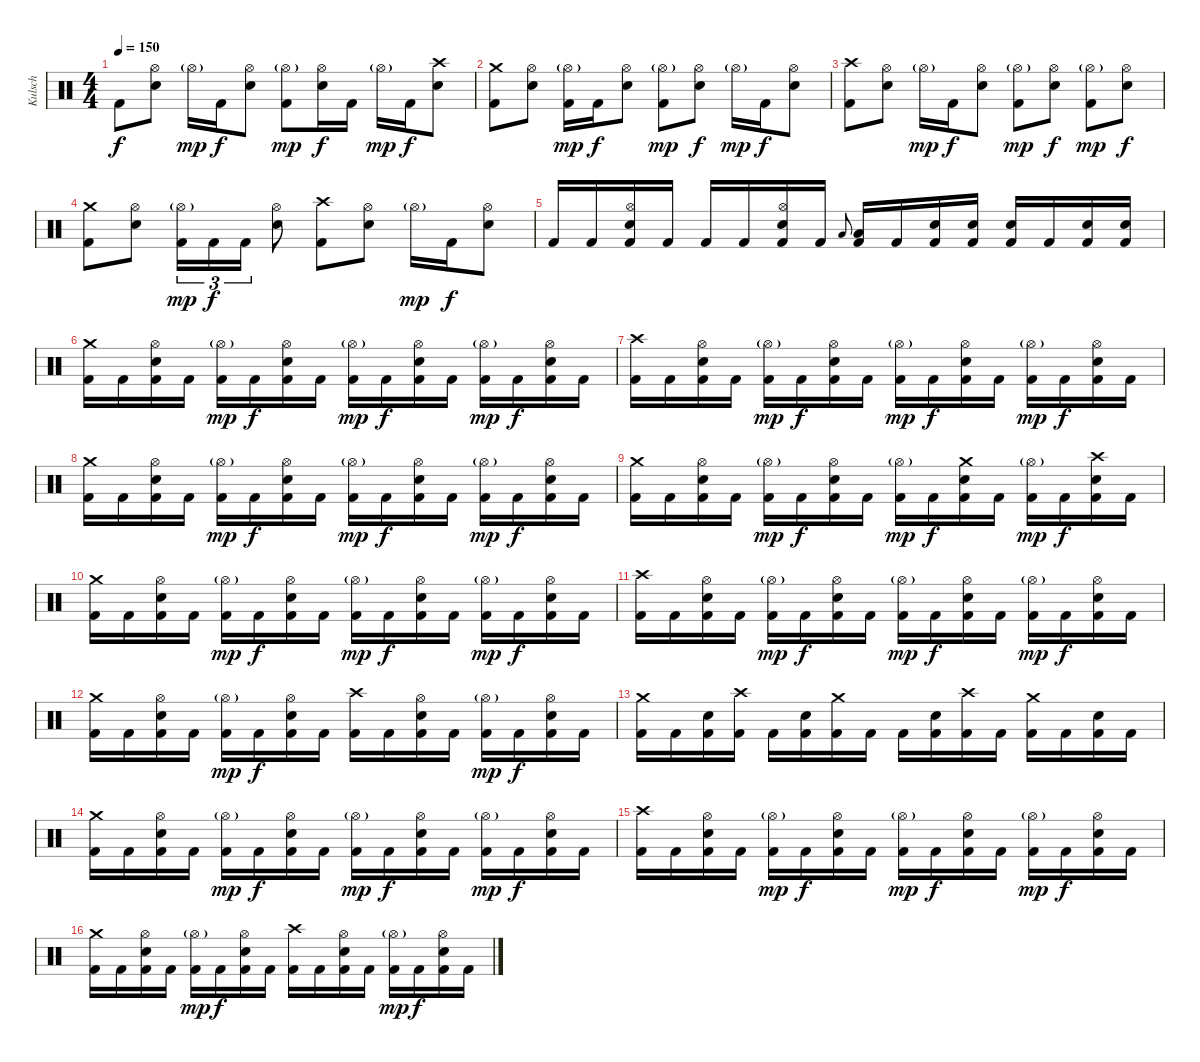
\track ("Kulsch" "Kulsch") {instrument percussion}
\staff {score}
\articulation defaults
\ts (4 4)
\tempo 150
\clef neutral
\ks c "Kick (hit) 2".8{dy f}
("Hi-Hat (open)" "Snare (hit) 2").8 "Hi-Hat (open)"{g}.16{dy mp} "Kick (hit) 2".16{dy f} ("Hi-Hat (open)" "Snare (hit) 2").8 ("Hi-Hat (open)"{g} "Kick (hit) 2").8{dy mp} ("Hi-Hat (open)" "Snare (hit) 2").16{dy f} "Kick (hit) 2".16 "Hi-Hat (open)"{g}.16{dy mp} "Kick (hit) 2".16{dy f} ("Crash high (hit)" "Snare (hit) 2").8 |
("Crash medium (hit)" "Kick (hit) 2").8 ("Hi-Hat (open)" "Snare (hit) 2").8 ("Hi-Hat (open)"{g} "Kick (hit) 2").16{dy mp} "Kick (hit) 2".16{dy f} ("Hi-Hat (open)" "Snare (hit) 2").8 ("Hi-Hat (open)"{g} "Kick (hit) 2").8{dy mp} ("Hi-Hat (open)" "Snare (hit) 2").8{dy f} "Hi-Hat (open)"{g}.16{dy mp} "Kick (hit) 2".16{dy f} ("Hi-Hat (open)" "Snare (hit) 2").8 |
("Crash high (hit)" "Kick (hit) 2").8 ("Hi-Hat (open)" "Snare (hit) 2").8 "Hi-Hat (open)"{g}.16{dy mp} "Kick (hit) 2".16{dy f} ("Hi-Hat (open)" "Snare (hit) 2").8 ("Hi-Hat (open)"{g} "Kick (hit) 2").8{dy mp} ("Hi-Hat (open)" "Snare (hit) 2").8{dy f} ("Hi-Hat (open)"{g} "Kick (hit) 2").8{dy mp} ("Hi-Hat (open)" "Snare (hit) 2").8{dy f} |
("Crash medium (hit)" "Kick (hit) 2").8 ("Hi-Hat (open)" "Snare (hit) 2").8 ("Hi-Hat (open)"{g} "Kick (hit) 2").16{tu (3 2) dy mp} "Kick (hit) 2".16{tu (3 2) dy f} "Kick (hit) 2".16{tu (3 2)} ("Hi-Hat (open)" "Snare (hit) 2").8 ("Crash high (hit)" "Kick (hit) 2").8 ("Hi-Hat (open)" "Snare (hit) 2").8 "Hi-Hat (open)"{g}.16{dy mp} "Kick (hit) 2".16{dy f} ("Hi-Hat (open)" "Snare (hit) 2").8 |
"Kick (hit) 2".16 "Kick (hit) 2".16 ("Hi-Hat (open)" "Snare (hit) 2" "Kick (hit) 2").16 "Kick (hit) 2".16 "Kick (hit) 2".16 "Kick (hit) 2".16 ("Hi-Hat (open)" "Snare (hit) 2" "Kick (hit) 2").16 "Kick (hit) 2".16 "Low Tom (hit)".8{gr onbeat} ("Low Tom (hit)" "Kick (hit) 2").16 "Kick (hit) 2".16 ("Snare (hit) 2" "Kick (hit) 2").16 ("Snare (hit) 2" "Kick (hit) 2").16 ("Snare (hit) 2" "Kick (hit) 2").16 "Kick (hit) 2".16 ("Snare (hit) 2" "Kick (hit) 2").16 ("Snare (hit) 2" "Kick (hit) 2").16 |
("Crash medium (hit)" "Kick (hit) 2").16 "Kick (hit) 2".16 ("Hi-Hat (open)" "Snare (hit) 2" "Kick (hit) 2").16 "Kick (hit) 2".16 ("Hi-Hat (open)"{g} "Kick (hit) 2").16{dy mp} "Kick (hit) 2".16{dy f} ("Hi-Hat (open)" "Snare (hit) 2" "Kick (hit) 2").16 "Kick (hit) 2".16 ("Hi-Hat (open)"{g} "Kick (hit) 2").16{dy mp} "Kick (hit) 2".16{dy f} ("Hi-Hat (open)" "Snare (hit) 2" "Kick (hit) 2").16 "Kick (hit) 2".16 ("Hi-Hat (open)"{g} "Kick (hit) 2").16{dy mp} "Kick (hit) 2".16{dy f} ("Hi-Hat (open)" "Snare (hit) 2" "Kick (hit) 2").16 "Kick (hit) 2".16 |
("Crash high (hit)" "Kick (hit) 2").16 "Kick (hit) 2".16 ("Hi-Hat (open)" "Snare (hit) 2" "Kick (hit) 2").16 "Kick (hit) 2".16 ("Hi-Hat (open)"{g} "Kick (hit) 2").16{dy mp} "Kick (hit) 2".16{dy f} ("Hi-Hat (open)" "Snare (hit) 2" "Kick (hit) 2").16 "Kick (hit) 2".16 ("Hi-Hat (open)"{g} "Kick (hit) 2").16{dy mp} "Kick (hit) 2".16{dy f} ("Hi-Hat (open)" "Snare (hit) 2" "Kick (hit) 2").16 "Kick (hit) 2".16 ("Hi-Hat (open)"{g} "Kick (hit) 2").16{dy mp} "Kick (hit) 2".16{dy f} ("Hi-Hat (open)" "Snare (hit) 2" "Kick (hit) 2").16 "Kick (hit) 2".16 |
("Crash medium (hit)" "Kick (hit) 2").16 "Kick (hit) 2".16 ("Hi-Hat (open)" "Snare (hit) 2" "Kick (hit) 2").16 "Kick (hit) 2".16 ("Hi-Hat (open)"{g} "Kick (hit) 2").16{dy mp} "Kick (hit) 2".16{dy f} ("Hi-Hat (open)" "Snare (hit) 2" "Kick (hit) 2").16 "Kick (hit) 2".16 ("Hi-Hat (open)"{g} "Kick (hit) 2").16{dy mp} "Kick (hit) 2".16{dy f} ("Hi-Hat (open)" "Snare (hit) 2" "Kick (hit) 2").16 "Kick (hit) 2".16 ("Hi-Hat (open)"{g} "Kick (hit) 2").16{dy mp} "Kick (hit) 2".16{dy f} ("Hi-Hat (open)" "Snare (hit) 2" "Kick (hit) 2").16 "Kick (hit) 2".16 |
("Crash medium (hit)" "Kick (hit) 2").16 "Kick (hit) 2".16 ("Hi-Hat (open)" "Snare (hit) 2" "Kick (hit) 2").16 "Kick (hit) 2".16 ("Hi-Hat (open)"{g} "Kick (hit) 2").16{dy mp} "Kick (hit) 2".16{dy f} ("Hi-Hat (open)" "Snare (hit) 2" "Kick (hit) 2").16 "Kick (hit) 2".16 ("Hi-Hat (open)"{g} "Kick (hit) 2").16{dy mp} "Kick (hit) 2".16{dy f} ("Crash medium (hit)" "Snare (hit) 2" "Kick (hit) 2").16 "Kick (hit) 2".16 ("Hi-Hat (open)"{g} "Kick (hit) 2").16{dy mp} "Kick (hit) 2".16{dy f} ("Crash high (hit)" "Snare (hit) 2" "Kick (hit) 2").16 "Kick (hit) 2".16 |
("Crash medium (hit)" "Kick (hit) 2").16 "Kick (hit) 2".16 ("Hi-Hat (open)" "Snare (hit) 2" "Kick (hit) 2").16 "Kick (hit) 2".16 ("Hi-Hat (open)"{g} "Kick (hit) 2").16{dy mp} "Kick (hit) 2".16{dy f} ("Hi-Hat (open)" "Snare (hit) 2" "Kick (hit) 2").16 "Kick (hit) 2".16 ("Hi-Hat (open)"{g} "Kick (hit) 2").16{dy mp} "Kick (hit) 2".16{dy f} ("Hi-Hat (open)" "Snare (hit) 2" "Kick (hit) 2").16 "Kick (hit) 2".16 ("Hi-Hat (open)"{g} "Kick (hit) 2").16{dy mp} "Kick (hit) 2".16{dy f} ("Hi-Hat (open)" "Snare (hit) 2" "Kick (hit) 2").16 "Kick (hit) 2".16 |
("Crash high (hit)" "Kick (hit) 2").16 "Kick (hit) 2".16 ("Hi-Hat (open)" "Snare (hit) 2" "Kick (hit) 2").16 "Kick (hit) 2".16 ("Hi-Hat (open)"{g} "Kick (hit) 2").16{dy mp} "Kick (hit) 2".16{dy f} ("Hi-Hat (open)" "Snare (hit) 2" "Kick (hit) 2").16 "Kick (hit) 2".16 ("Hi-Hat (open)"{g} "Kick (hit) 2").16{dy mp} "Kick (hit) 2".16{dy f} ("Hi-Hat (open)" "Snare (hit) 2" "Kick (hit) 2").16 "Kick (hit) 2".16 ("Hi-Hat (open)"{g} "Kick (hit) 2").16{dy mp} "Kick (hit) 2".16{dy f} ("Hi-Hat (open)" "Snare (hit) 2" "Kick (hit) 2").16 "Kick (hit) 2".16 |
("Crash medium (hit)" "Kick (hit) 2").16 "Kick (hit) 2".16 ("Hi-Hat (open)" "Snare (hit) 2" "Kick (hit) 2").16 "Kick (hit) 2".16 ("Hi-Hat (open)"{g} "Kick (hit) 2").16{dy mp} "Kick (hit) 2".16{dy f} ("Hi-Hat (open)" "Snare (hit) 2" "Kick (hit) 2").16 "Kick (hit) 2".16 ("Crash high (hit)" "Kick (hit) 2").16 "Kick (hit) 2".16 ("Hi-Hat (open)" "Snare (hit) 2" "Kick (hit) 2").16 "Kick (hit) 2".16 ("Hi-Hat (open)"{g} "Kick (hit) 2").16{dy mp} "Kick (hit) 2".16{dy f} ("Hi-Hat (open)" "Snare (hit) 2" "Kick (hit) 2").16 "Kick (hit) 2".16 |
("Crash medium (hit)" "Kick (hit) 2").16 "Kick (hit) 2".16 ("Snare (hit) 2" "Kick (hit) 2").16 ("Crash high (hit)" "Kick (hit) 2").16 "Kick (hit) 2".16 ("Snare (hit) 2" "Kick (hit) 2").16 ("Crash medium (hit)" "Kick (hit) 2").16 "Kick (hit) 2".16 "Kick (hit) 2".16 ("Snare (hit) 2" "Kick (hit) 2").16 ("Crash high (hit)" "Kick (hit) 2").16 "Kick (hit) 2".16 ("Crash medium (hit)" "Kick (hit) 2").16 "Kick (hit) 2".16 ("Snare (hit) 2" "Kick (hit) 2").16 "Kick (hit) 2".16 |
("Crash medium (hit)" "Kick (hit) 2").16 "Kick (hit) 2".16 ("Hi-Hat (open)" "Snare (hit) 2" "Kick (hit) 2").16 "Kick (hit) 2".16 ("Hi-Hat (open)"{g} "Kick (hit) 2").16{dy mp} "Kick (hit) 2".16{dy f} ("Hi-Hat (open)" "Snare (hit) 2" "Kick (hit) 2").16 "Kick (hit) 2".16 ("Hi-Hat (open)"{g} "Kick (hit) 2").16{dy mp} "Kick (hit) 2".16{dy f} ("Hi-Hat (open)" "Snare (hit) 2" "Kick (hit) 2").16 "Kick (hit) 2".16 ("Hi-Hat (open)"{g} "Kick (hit) 2").16{dy mp} "Kick (hit) 2".16{dy f} ("Hi-Hat (open)" "Snare (hit) 2" "Kick (hit) 2").16 "Kick (hit) 2".16 |
("Crash high (hit)" "Kick (hit) 2").16 "Kick (hit) 2".16 ("Hi-Hat (open)" "Snare (hit) 2" "Kick (hit) 2").16 "Kick (hit) 2".16 ("Hi-Hat (open)"{g} "Kick (hit) 2").16{dy mp} "Kick (hit) 2".16{dy f} ("Hi-Hat (open)" "Snare (hit) 2" "Kick (hit) 2").16 "Kick (hit) 2".16 ("Hi-Hat (open)"{g} "Kick (hit) 2").16{dy mp} "Kick (hit) 2".16{dy f} ("Hi-Hat (open)" "Snare (hit) 2" "Kick (hit) 2").16 "Kick (hit) 2".16 ("Hi-Hat (open)"{g} "Kick (hit) 2").16{dy mp} "Kick (hit) 2".16{dy f} ("Hi-Hat (open)" "Snare (hit) 2" "Kick (hit) 2").16 "Kick (hit) 2".16 |
("Crash medium (hit)" "Kick (hit) 2").16 "Kick (hit) 2".16 ("Hi-Hat (open)" "Snare (hit) 2" "Kick (hit) 2").16 "Kick (hit) 2".16 ("Hi-Hat (open)"{g} "Kick (hit) 2").16{dy mp} "Kick (hit) 2".16{dy f} ("Hi-Hat (open)" "Snare (hit) 2" "Kick (hit) 2").16 "Kick (hit) 2".16 ("Crash high (hit)" "Kick (hit) 2").16 "Kick (hit) 2".16 ("Hi-Hat (open)" "Snare (hit) 2" "Kick (hit) 2").16 "Kick (hit) 2".16 ("Hi-Hat (open)"{g} "Kick (hit) 2").16{dy mp} "Kick (hit) 2".16{dy f} ("Hi-Hat (open)" "Snare (hit) 2" "Kick (hit) 2").16 "Kick (hit) 2".16
